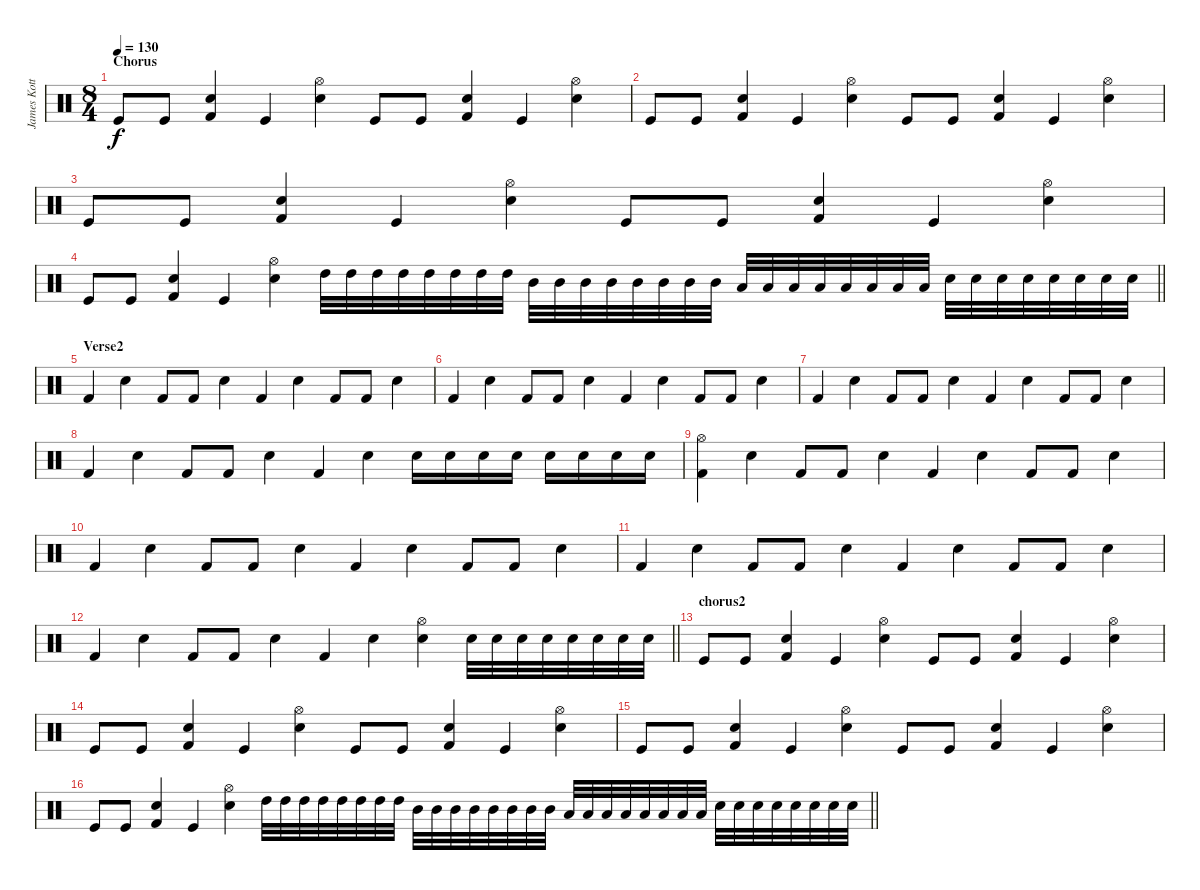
\track ("James Kottak" "James Kott") {instrument percussion}
\staff {score}
\articulation defaults
\ts (8 4)
\section ("" "Chorus")
\tempo 130
\clef neutral
\ks c "Kick (hit)".8{dy f} "Kick (hit)".8
("Kick (hit) 2" "Snare (hit) 2").4 "Kick (hit)".4 ("Hi-Hat (open)" "Snare (hit) 2").4 "Kick (hit)".8 "Kick (hit)".8 ("Kick (hit) 2" "Snare (hit) 2").4 "Kick (hit)".4 ("Hi-Hat (open)" "Snare (hit) 2").4 |
"Kick (hit)".8 "Kick (hit)".8 ("Kick (hit) 2" "Snare (hit) 2").4 "Kick (hit)".4 ("Hi-Hat (open)" "Snare (hit) 2").4 "Kick (hit)".8 "Kick (hit)".8 ("Kick (hit) 2" "Snare (hit) 2").4 "Kick (hit)".4 ("Hi-Hat (open)" "Snare (hit) 2").4 |
"Kick (hit)".8 "Kick (hit)".8 ("Kick (hit) 2" "Snare (hit) 2").4 "Kick (hit)".4 ("Hi-Hat (open)" "Snare (hit) 2").4 "Kick (hit)".8 "Kick (hit)".8 ("Kick (hit) 2" "Snare (hit) 2").4 "Kick (hit)".4 ("Hi-Hat (open)" "Snare (hit) 2").4 |
\barLineRight lightlight "Kick (hit)".8 "Kick (hit)".8
("Kick (hit) 2" "Snare (hit) 2").4 "Kick (hit)".4 ("Hi-Hat (open)" "Snare (hit) 2").4 "High Tom (hit)".32 "High Tom (hit)".32 "High Tom (hit)".32 "High Tom (hit)".32 "High Tom (hit)".32 "High Tom (hit)".32 "High Tom (hit)".32 "High Tom (hit)".32 "Mid Tom (hit)".32 "Mid Tom (hit)".32 "Mid Tom (hit)".32 "Mid Tom (hit)".32 "Mid Tom (hit)".32 "Mid Tom (hit)".32 "Mid Tom (hit)".32 "Mid Tom (hit)".32 "Low Tom (hit)".32 "Low Tom (hit)".32 "Low Tom (hit)".32 "Low Tom (hit)".32 "Low Tom (hit)".32 "Low Tom (hit)".32 "Low Tom (hit)".32 "Low Tom (hit)".32 "Snare (hit) 2".32 "Snare (hit) 2".32 "Snare (hit) 2".32 "Snare (hit) 2".32 "Snare (hit) 2".32 "Snare (hit) 2".32 "Snare (hit) 2".32 "Snare (hit) 2".32 |
\section ("" "Verse2")
"Kick (hit) 2".4 "Snare (hit) 2".4 "Kick (hit) 2".8 "Kick (hit) 2".8 "Snare (hit) 2".4 "Kick (hit) 2".4 "Snare (hit) 2".4 "Kick (hit) 2".8 "Kick (hit) 2".8 "Snare (hit) 2".4 |
"Kick (hit) 2".4 "Snare (hit) 2".4 "Kick (hit) 2".8 "Kick (hit) 2".8 "Snare (hit) 2".4 "Kick (hit) 2".4 "Snare (hit) 2".4 "Kick (hit) 2".8 "Kick (hit) 2".8 "Snare (hit) 2".4 |
"Kick (hit) 2".4 "Snare (hit) 2".4 "Kick (hit) 2".8 "Kick (hit) 2".8 "Snare (hit) 2".4 "Kick (hit) 2".4 "Snare (hit) 2".4 "Kick (hit) 2".8 "Kick (hit) 2".8 "Snare (hit) 2".4 |
"Kick (hit) 2".4 "Snare (hit) 2".4 "Kick (hit) 2".8 "Kick (hit) 2".8 "Snare (hit) 2".4 "Kick (hit) 2".4 "Snare (hit) 2".4 "Snare (hit) 2".16 "Snare (hit) 2".16 "Snare (hit) 2".16 "Snare (hit) 2".16 "Snare (hit) 2".16 "Snare (hit) 2".16 "Snare (hit) 2".16 "Snare (hit) 2".16 |
("Hi-Hat (open)" "Kick (hit) 2").4 "Snare (hit) 2".4 "Kick (hit) 2".8 "Kick (hit) 2".8 "Snare (hit) 2".4 "Kick (hit) 2".4 "Snare (hit) 2".4 "Kick (hit) 2".8 "Kick (hit) 2".8 "Snare (hit) 2".4 |
"Kick (hit) 2".4 "Snare (hit) 2".4 "Kick (hit) 2".8 "Kick (hit) 2".8 "Snare (hit) 2".4 "Kick (hit) 2".4 "Snare (hit) 2".4 "Kick (hit) 2".8 "Kick (hit) 2".8 "Snare (hit) 2".4 |
"Kick (hit) 2".4 "Snare (hit) 2".4 "Kick (hit) 2".8 "Kick (hit) 2".8 "Snare (hit) 2".4 "Kick (hit) 2".4 "Snare (hit) 2".4 "Kick (hit) 2".8 "Kick (hit) 2".8 "Snare (hit) 2".4 |
\barLineRight lightlight "Kick (hit) 2".4 "Snare (hit) 2".4 "Kick (hit) 2".8 "Kick (hit) 2".8 "Snare (hit) 2".4 "Kick (hit) 2".4 "Snare (hit) 2".4
("Hi-Hat (open)" "Snare (hit) 2").4 "Snare (hit) 2".32 "Snare (hit) 2".32 "Snare (hit) 2".32 "Snare (hit) 2".32 "Snare (hit) 2".32 "Snare (hit) 2".32 "Snare (hit) 2".32 "Snare (hit) 2".32 |
\section ("" "chorus2")
"Kick (hit)".8 "Kick (hit)".8 ("Kick (hit) 2" "Snare (hit) 2").4 "Kick (hit)".4 ("Hi-Hat (open)" "Snare (hit) 2").4 "Kick (hit)".8 "Kick (hit)".8 ("Kick (hit) 2" "Snare (hit) 2").4 "Kick (hit)".4 ("Hi-Hat (open)" "Snare (hit) 2").4 |
"Kick (hit)".8 "Kick (hit)".8 ("Kick (hit) 2" "Snare (hit) 2").4 "Kick (hit)".4 ("Hi-Hat (open)" "Snare (hit) 2").4 "Kick (hit)".8 "Kick (hit)".8 ("Kick (hit) 2" "Snare (hit) 2").4 "Kick (hit)".4 ("Hi-Hat (open)" "Snare (hit) 2").4 |
"Kick (hit)".8 "Kick (hit)".8 ("Kick (hit) 2" "Snare (hit) 2").4 "Kick (hit)".4 ("Hi-Hat (open)" "Snare (hit) 2").4 "Kick (hit)".8 "Kick (hit)".8 ("Kick (hit) 2" "Snare (hit) 2").4 "Kick (hit)".4 ("Hi-Hat (open)" "Snare (hit) 2").4 |
\barLineRight lightlight "Kick (hit)".8 "Kick (hit)".8
("Kick (hit) 2" "Snare (hit) 2").4 "Kick (hit)".4 ("Hi-Hat (open)" "Snare (hit) 2").4 "High Tom (hit)".32 "High Tom (hit)".32 "High Tom (hit)".32 "High Tom (hit)".32 "High Tom (hit)".32 "High Tom (hit)".32 "High Tom (hit)".32 "High Tom (hit)".32 "Mid Tom (hit)".32 "Mid Tom (hit)".32 "Mid Tom (hit)".32 "Mid Tom (hit)".32 "Mid Tom (hit)".32 "Mid Tom (hit)".32 "Mid Tom (hit)".32 "Mid Tom (hit)".32 "Low Tom (hit)".32 "Low Tom (hit)".32 "Low Tom (hit)".32 "Low Tom (hit)".32 "Low Tom (hit)".32 "Low Tom (hit)".32 "Low Tom (hit)".32 "Low Tom (hit)".32 "Snare (hit) 2".32 "Snare (hit) 2".32 "Snare (hit) 2".32 "Snare (hit) 2".32 "Snare (hit) 2".32 "Snare (hit) 2".32 "Snare (hit) 2".32 "Snare (hit) 2".32
